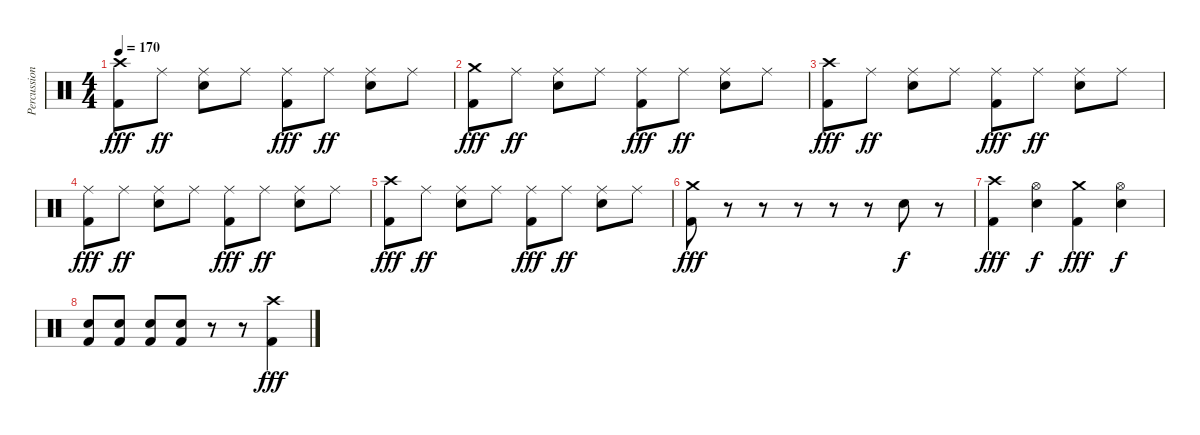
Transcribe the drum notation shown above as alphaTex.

\track ("Percussion" "Percussion") {instrument percussion}
\staff {score}
\articulation defaults
\ts (4 4)
\tempo 170
\clef neutral
\ks c
("Crash high (hit)" "Kick (hit) 2").8{dy fff} "Ride (middle)".8{dy ff} ("Ride (middle)" "Electric Snare (hit)").8 "Ride (middle)".8 ("Ride (middle)" "Kick (hit) 2").8{dy fff} "Ride (middle)".8{dy ff} ("Ride (middle)" "Electric Snare (hit)").8 "Ride (middle)".8 |
("Crash medium (hit)" "Kick (hit) 2").8{dy fff} "Ride (middle)".8{dy ff} ("Ride (middle)" "Electric Snare (hit)").8 "Ride (middle)".8 ("Ride (middle)" "Kick (hit) 2").8{dy fff} "Ride (middle)".8{dy ff} ("Ride (middle)" "Electric Snare (hit)").8 "Ride (middle)".8 |
("Crash high (hit)" "Kick (hit) 2").8{dy fff} "Ride (middle)".8{dy ff} ("Ride (middle)" "Electric Snare (hit)").8 "Ride (middle)".8 ("Ride (middle)" "Kick (hit) 2").8{dy fff} "Ride (middle)".8{dy ff} ("Ride (middle)" "Electric Snare (hit)").8 "Ride (middle)".8 |
("Ride (middle)" "Kick (hit) 2").8{dy fff} "Ride (middle)".8{dy ff} ("Ride (middle)" "Electric Snare (hit)").8 "Ride (middle)".8 ("Ride (middle)" "Kick (hit) 2").8{dy fff} "Ride (middle)".8{dy ff} ("Ride (middle)" "Electric Snare (hit)").8 "Ride (middle)".8 |
("Crash high (hit)" "Kick (hit) 2").8{dy fff} "Ride (middle)".8{dy ff} ("Ride (middle)" "Electric Snare (hit)").8 "Ride (middle)".8 ("Ride (middle)" "Kick (hit) 2").8{dy fff} "Ride (middle)".8{dy ff} ("Ride (middle)" "Electric Snare (hit)").8 "Ride (middle)".8 |
("Crash medium (hit)" "Kick (hit) 2").8{dy fff} r.8 r.8 r.8 r.8 r.8 "Electric Snare (hit)".8{dy f} r.8 |
("Crash high (hit)" "Kick (hit) 2").4{dy fff} ("Hi-Hat (open)" "Electric Snare (hit)").4{dy f} ("Crash medium (hit)" "Kick (hit) 2").4{dy fff} ("Hi-Hat (open)" "Electric Snare (hit)").4{dy f} |
("Electric Snare (hit)" "Kick (hit) 2").8 ("Electric Snare (hit)" "Kick (hit) 2").8 ("Electric Snare (hit)" "Kick (hit) 2").8 ("Electric Snare (hit)" "Kick (hit) 2").8 r.8 r.8 ("Crash high (hit)" "Kick (hit) 2").4{dy fff}
